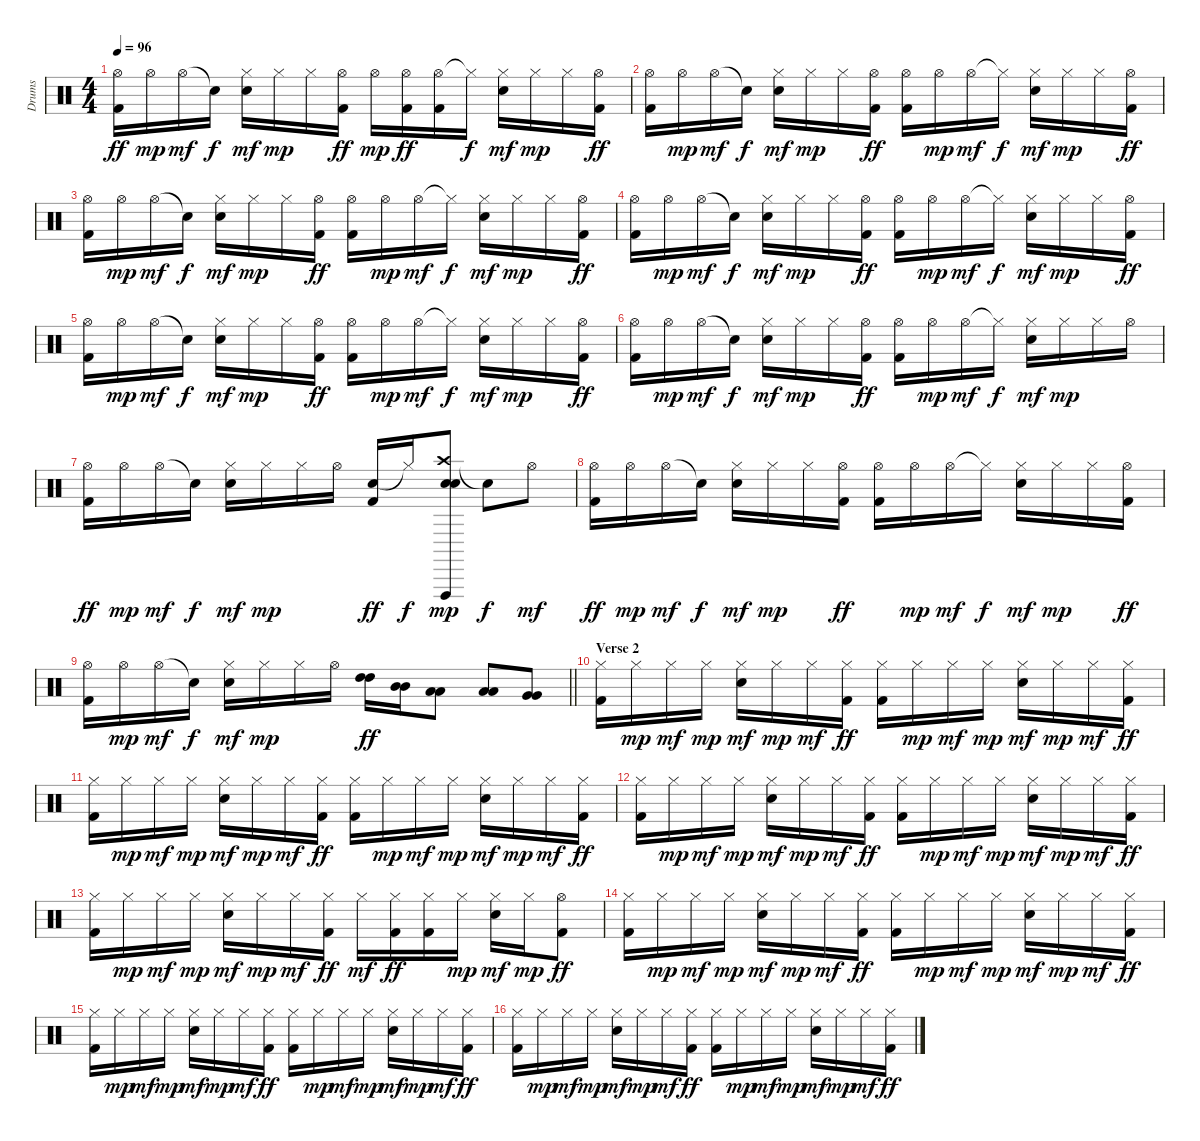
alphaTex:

\track ("Drums" "Drums") {instrument percussion}
\staff {score}
\articulation defaults
\ts (4 4)
\tempo 96
\clef neutral
\ks c
("Hi-Hat (open)" "Kick (hit) 2").16{dy ff} "Hi-Hat (open)".16{dy mp} "Hi-Hat (open)".16{dy mf} "Snare (hit)"{t}.16{dy f} ("Hi-Hat (closed)" "Electric Snare (hit)").16{dy mf} "Hi-Hat (closed)".16{dy mp} "Hi-Hat (closed)".16 ("Hi-Hat (open)" "Kick (hit) 2").16{dy ff} "Hi-Hat (open)".16{dy mp} ("Hi-Hat (open)" "Kick (hit) 2").16{dy ff} ("Hi-Hat (open)" "Kick (hit) 2").16 "Hi-Hat (closed)"{t}.16{dy f} ("Hi-Hat (closed)" "Electric Snare (hit)").16{dy mf} "Hi-Hat (closed)".16{dy mp} "Hi-Hat (closed)".16 ("Hi-Hat (open)" "Kick (hit) 2").16{dy ff} |
("Hi-Hat (open)" "Kick (hit) 2").16 "Hi-Hat (open)".16{dy mp} "Hi-Hat (open)".16{dy mf} "Snare (hit)"{t}.16{dy f} ("Hi-Hat (closed)" "Electric Snare (hit)").16{dy mf} "Hi-Hat (closed)".16{dy mp} "Hi-Hat (closed)".16 ("Hi-Hat (open)" "Kick (hit) 2").16{dy ff} ("Hi-Hat (open)" "Kick (hit) 2").16 "Hi-Hat (open)".16{dy mp} "Hi-Hat (open)".16{dy mf} "Hi-Hat (closed)"{t}.16{dy f} ("Hi-Hat (closed)" "Electric Snare (hit)").16{dy mf} "Hi-Hat (closed)".16{dy mp} "Hi-Hat (closed)".16 ("Hi-Hat (open)" "Kick (hit) 2").16{dy ff} |
("Hi-Hat (open)" "Kick (hit) 2").16 "Hi-Hat (open)".16{dy mp} "Hi-Hat (open)".16{dy mf} "Snare (hit)"{t}.16{dy f} ("Hi-Hat (closed)" "Electric Snare (hit)").16{dy mf} "Hi-Hat (closed)".16{dy mp} "Hi-Hat (closed)".16 ("Hi-Hat (open)" "Kick (hit) 2").16{dy ff} ("Hi-Hat (open)" "Kick (hit) 2").16 "Hi-Hat (open)".16{dy mp} "Hi-Hat (open)".16{dy mf} "Hi-Hat (closed)"{t}.16{dy f} ("Hi-Hat (closed)" "Electric Snare (hit)").16{dy mf} "Hi-Hat (closed)".16{dy mp} "Hi-Hat (closed)".16 ("Hi-Hat (open)" "Kick (hit) 2").16{dy ff} |
("Hi-Hat (open)" "Kick (hit) 2").16 "Hi-Hat (open)".16{dy mp} "Hi-Hat (open)".16{dy mf} "Snare (hit)"{t}.16{dy f} ("Hi-Hat (closed)" "Electric Snare (hit)").16{dy mf} "Hi-Hat (closed)".16{dy mp} "Hi-Hat (closed)".16 ("Hi-Hat (open)" "Kick (hit) 2").16{dy ff} ("Hi-Hat (open)" "Kick (hit) 2").16 "Hi-Hat (open)".16{dy mp} "Hi-Hat (open)".16{dy mf} "Hi-Hat (closed)"{t}.16{dy f} ("Hi-Hat (closed)" "Electric Snare (hit)").16{dy mf} "Hi-Hat (closed)".16{dy mp} "Hi-Hat (closed)".16 ("Hi-Hat (open)" "Kick (hit) 2").16{dy ff} |
("Hi-Hat (open)" "Kick (hit) 2").16 "Hi-Hat (open)".16{dy mp} "Hi-Hat (open)".16{dy mf} "Snare (hit)"{t}.16{dy f} ("Hi-Hat (closed)" "Electric Snare (hit)").16{dy mf} "Hi-Hat (closed)".16{dy mp} "Hi-Hat (closed)".16 ("Hi-Hat (open)" "Kick (hit) 2").16{dy ff} ("Hi-Hat (open)" "Kick (hit) 2").16 "Hi-Hat (open)".16{dy mp} "Hi-Hat (open)".16{dy mf} "Hi-Hat (closed)"{t}.16{dy f} ("Hi-Hat (closed)" "Electric Snare (hit)").16{dy mf} "Hi-Hat (closed)".16{dy mp} "Hi-Hat (closed)".16 ("Hi-Hat (open)" "Kick (hit) 2").16{dy ff} |
("Hi-Hat (open)" "Kick (hit) 2").16 "Hi-Hat (open)".16{dy mp} "Hi-Hat (open)".16{dy mf} "Snare (hit)"{t}.16{dy f} ("Hi-Hat (closed)" "Electric Snare (hit)").16{dy mf} "Hi-Hat (closed)".16{dy mp} "Hi-Hat (closed)".16 ("Hi-Hat (open)" "Kick (hit) 2").16{dy ff} ("Hi-Hat (open)" "Kick (hit) 2").16 "Hi-Hat (open)".16{dy mp} "Hi-Hat (open)".16{dy mf} "Hi-Hat (closed)"{t}.16{dy f} ("Hi-Hat (closed)" "Electric Snare (hit)").16{dy mf} "Hi-Hat (closed)".16{dy mp} "Hi-Hat (closed)".16 "Hi-Hat (open)".16 |
("Hi-Hat (open)" "Kick (hit) 2").16{dy ff} "Hi-Hat (open)".16{dy mp} "Hi-Hat (open)".16{dy mf} "Snare (hit)"{t}.16{dy f} ("Hi-Hat (closed)" "Electric Snare (hit)").16{dy mf} "Hi-Hat (closed)".16{dy mp} "Hi-Hat (closed)".16 "Hi-Hat (open)".16 ("Electric Snare (hit)" "Kick (hit) 2").16{dy ff} "Hi-Hat (closed)"{t}.16{dy f} ("Crash high (hit)" "Vibraslap (hit)" "Electric Snare (hit)" "Snare (hit) 2").8{dy mp} "Snare (hit)"{t}.8{dy f} "Hi-Hat (open)".8{dy mf} |
("Hi-Hat (open)" "Kick (hit) 2").16{dy ff} "Hi-Hat (open)".16{dy mp} "Hi-Hat (open)".16{dy mf} "Snare (hit)"{t}.16{dy f} ("Hi-Hat (closed)" "Electric Snare (hit)").16{dy mf} "Hi-Hat (closed)".16{dy mp} "Hi-Hat (closed)".16 ("Hi-Hat (open)" "Kick (hit) 2").16{dy ff} ("Hi-Hat (open)" "Kick (hit) 2").16 "Hi-Hat (open)".16{dy mp} "Hi-Hat (open)".16{dy mf} "Hi-Hat (closed)"{t}.16{dy f} ("Hi-Hat (closed)" "Electric Snare (hit)").16{dy mf} "Hi-Hat (closed)".16{dy mp} "Hi-Hat (closed)".16 ("Hi-Hat (open)" "Kick (hit) 2").16{dy ff} |
\barLineRight lightlight
("Hi-Hat (open)" "Kick (hit) 2").16 "Hi-Hat (open)".16{dy mp} "Hi-Hat (open)".16{dy mf} "Snare (hit)"{t}.16{dy f} ("Hi-Hat (closed)" "Electric Snare (hit)").16{dy mf} "Hi-Hat (closed)".16{dy mp} "Hi-Hat (closed)".16 "Hi-Hat (open)".16 ("High Tom (hit)" "High Tom (hit)").16{dy ff} ("Mid Tom (hit)" "Mid Tom (hit)").16 ("Low Tom (hit)" "Low Tom (hit)").8 ("Low Tom (hit)" "Low Tom (hit)").8 ("Very Low Tom (hit)" "Very Low Tom (hit)").8 |
\section ("" "Verse 2")
("Hi-Hat (closed)" "Kick (hit) 2").16 "Hi-Hat (closed)".16{dy mp} "Hi-Hat (closed)".16{dy mf} "Hi-Hat (closed)".16{dy mp} ("Hi-Hat (closed)" "Electric Snare (hit)").16{dy mf} "Hi-Hat (closed)".16{dy mp} "Hi-Hat (closed)".16{dy mf} ("Hi-Hat (closed)" "Kick (hit) 2").16{dy ff} ("Hi-Hat (closed)" "Kick (hit) 2").16 "Hi-Hat (closed)".16{dy mp} "Hi-Hat (closed)".16{dy mf} "Hi-Hat (closed)".16{dy mp} ("Hi-Hat (closed)" "Electric Snare (hit)").16{dy mf} "Hi-Hat (closed)".16{dy mp} "Hi-Hat (closed)".16{dy mf} ("Hi-Hat (closed)" "Kick (hit) 2").16{dy ff} |
("Hi-Hat (closed)" "Kick (hit) 2").16 "Hi-Hat (closed)".16{dy mp} "Hi-Hat (closed)".16{dy mf} "Hi-Hat (closed)".16{dy mp} ("Hi-Hat (closed)" "Electric Snare (hit)").16{dy mf} "Hi-Hat (closed)".16{dy mp} "Hi-Hat (closed)".16{dy mf} ("Hi-Hat (closed)" "Kick (hit) 2").16{dy ff} ("Hi-Hat (closed)" "Kick (hit) 2").16 "Hi-Hat (closed)".16{dy mp} "Hi-Hat (closed)".16{dy mf} "Hi-Hat (closed)".16{dy mp} ("Hi-Hat (closed)" "Electric Snare (hit)").16{dy mf} "Hi-Hat (closed)".16{dy mp} "Hi-Hat (closed)".16{dy mf} ("Hi-Hat (closed)" "Kick (hit) 2").16{dy ff} |
("Hi-Hat (closed)" "Kick (hit) 2").16 "Hi-Hat (closed)".16{dy mp} "Hi-Hat (closed)".16{dy mf} "Hi-Hat (closed)".16{dy mp} ("Hi-Hat (closed)" "Electric Snare (hit)").16{dy mf} "Hi-Hat (closed)".16{dy mp} "Hi-Hat (closed)".16{dy mf} ("Hi-Hat (closed)" "Kick (hit) 2").16{dy ff} ("Hi-Hat (closed)" "Kick (hit) 2").16 "Hi-Hat (closed)".16{dy mp} "Hi-Hat (closed)".16{dy mf} "Hi-Hat (closed)".16{dy mp} ("Hi-Hat (closed)" "Electric Snare (hit)").16{dy mf} "Hi-Hat (closed)".16{dy mp} "Hi-Hat (closed)".16{dy mf} ("Hi-Hat (closed)" "Kick (hit) 2").16{dy ff} |
("Hi-Hat (closed)" "Kick (hit) 2").16 "Hi-Hat (closed)".16{dy mp} "Hi-Hat (closed)".16{dy mf} "Hi-Hat (closed)".16{dy mp} ("Hi-Hat (closed)" "Electric Snare (hit)").16{dy mf} "Hi-Hat (closed)".16{dy mp} "Hi-Hat (closed)".16{dy mf} ("Hi-Hat (closed)" "Kick (hit) 2").16{dy ff} "Hi-Hat (closed)".16{dy mf} ("Hi-Hat (closed)" "Kick (hit) 2").16{dy ff} ("Hi-Hat (closed)" "Kick (hit) 2").16 "Hi-Hat (closed)".16{dy mp} ("Hi-Hat (closed)" "Electric Snare (hit)").16{dy mf} "Hi-Hat (closed)".16{dy mp} ("Hi-Hat (open)" "Kick (hit) 2").8{dy ff} |
("Hi-Hat (closed)" "Kick (hit) 2").16 "Hi-Hat (closed)".16{dy mp} "Hi-Hat (closed)".16{dy mf} "Hi-Hat (closed)".16{dy mp} ("Hi-Hat (closed)" "Electric Snare (hit)").16{dy mf} "Hi-Hat (closed)".16{dy mp} "Hi-Hat (closed)".16{dy mf} ("Hi-Hat (closed)" "Kick (hit) 2").16{dy ff} ("Hi-Hat (closed)" "Kick (hit) 2").16 "Hi-Hat (closed)".16{dy mp} "Hi-Hat (closed)".16{dy mf} "Hi-Hat (closed)".16{dy mp} ("Hi-Hat (closed)" "Electric Snare (hit)").16{dy mf} "Hi-Hat (closed)".16{dy mp} "Hi-Hat (closed)".16{dy mf} ("Hi-Hat (closed)" "Kick (hit) 2").16{dy ff} |
("Hi-Hat (closed)" "Kick (hit) 2").16 "Hi-Hat (closed)".16{dy mp} "Hi-Hat (closed)".16{dy mf} "Hi-Hat (closed)".16{dy mp} ("Hi-Hat (closed)" "Electric Snare (hit)").16{dy mf} "Hi-Hat (closed)".16{dy mp} "Hi-Hat (closed)".16{dy mf} ("Hi-Hat (closed)" "Kick (hit) 2").16{dy ff} ("Hi-Hat (closed)" "Kick (hit) 2").16 "Hi-Hat (closed)".16{dy mp} "Hi-Hat (closed)".16{dy mf} "Hi-Hat (closed)".16{dy mp} ("Hi-Hat (closed)" "Electric Snare (hit)").16{dy mf} "Hi-Hat (closed)".16{dy mp} "Hi-Hat (closed)".16{dy mf} ("Hi-Hat (closed)" "Kick (hit) 2").16{dy ff} |
("Hi-Hat (closed)" "Kick (hit) 2").16 "Hi-Hat (closed)".16{dy mp} "Hi-Hat (closed)".16{dy mf} "Hi-Hat (closed)".16{dy mp} ("Hi-Hat (closed)" "Electric Snare (hit)").16{dy mf} "Hi-Hat (closed)".16{dy mp} "Hi-Hat (closed)".16{dy mf} ("Hi-Hat (closed)" "Kick (hit) 2").16{dy ff} ("Hi-Hat (closed)" "Kick (hit) 2").16 "Hi-Hat (closed)".16{dy mp} "Hi-Hat (closed)".16{dy mf} "Hi-Hat (closed)".16{dy mp} ("Hi-Hat (closed)" "Electric Snare (hit)").16{dy mf} "Hi-Hat (closed)".16{dy mp} "Hi-Hat (closed)".16{dy mf} ("Hi-Hat (closed)" "Kick (hit) 2").16{dy ff}
